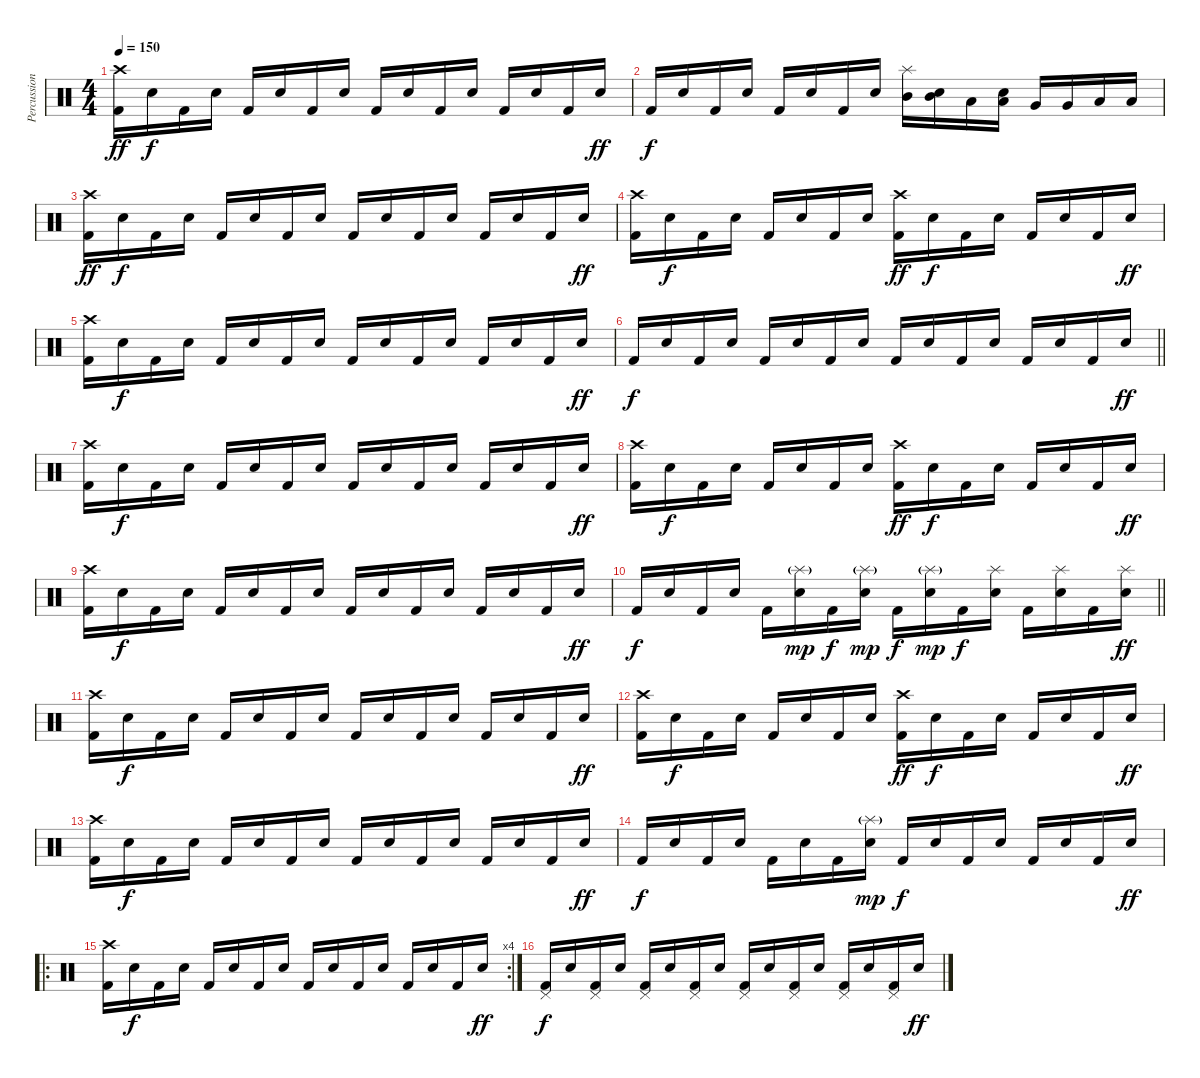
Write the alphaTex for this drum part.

\track ("Percussion" "Percussion") {instrument percussion}
\staff {score}
\articulation defaults
\ts (4 4)
\tempo 150
\clef neutral
\ks c
("Crash high (hit)" "Kick (hit) 2").16{dy ff} "Electric Snare (hit)".16{dy f} "Kick (hit) 2".16 "Electric Snare (hit)".16 "Kick (hit) 2".16 "Electric Snare (hit)".16 "Kick (hit) 2".16 "Electric Snare (hit)".16 "Kick (hit) 2".16 "Electric Snare (hit)".16 "Kick (hit) 2".16 "Electric Snare (hit)".16 "Kick (hit) 2".16 "Electric Snare (hit)".16 "Kick (hit) 2".16 "Electric Snare (hit)".16{dy ff} |
"Kick (hit) 2".16{dy f} "Electric Snare (hit)".16 "Kick (hit) 2".16 "Electric Snare (hit)".16 "Kick (hit) 2".16 "Electric Snare (hit)".16 "Kick (hit) 2".16 "Electric Snare (hit)".16 ("Splash (hit)" "Mid Tom (hit)").16 ("Electric Snare (hit)" "Mid Tom (hit)").16 "Low Tom (hit)".16 ("Electric Snare (hit)" "Low Tom (hit)").16 "Very Low Tom (hit)".16 "Very Low Tom (hit)".16 "Low Floor Tom (hit)".16 "Low Floor Tom (hit)".16 |
("Crash high (hit)" "Kick (hit) 2").16{dy ff} "Electric Snare (hit)".16{dy f} "Kick (hit) 2".16 "Electric Snare (hit)".16 "Kick (hit) 2".16 "Electric Snare (hit)".16 "Kick (hit) 2".16 "Electric Snare (hit)".16 "Kick (hit) 2".16 "Electric Snare (hit)".16 "Kick (hit) 2".16 "Electric Snare (hit)".16 "Kick (hit) 2".16 "Electric Snare (hit)".16 "Kick (hit) 2".16 "Electric Snare (hit)".16{dy ff} |
("Crash high (hit)" "Kick (hit) 2").16 "Electric Snare (hit)".16{dy f} "Kick (hit) 2".16 "Electric Snare (hit)".16 "Kick (hit) 2".16 "Electric Snare (hit)".16 "Kick (hit) 2".16 "Electric Snare (hit)".16 ("Crash high (hit)" "Kick (hit) 2").16{dy ff} "Electric Snare (hit)".16{dy f} "Kick (hit) 2".16 "Electric Snare (hit)".16 "Kick (hit) 2".16 "Electric Snare (hit)".16 "Kick (hit) 2".16 "Electric Snare (hit)".16{dy ff} |
("Crash high (hit)" "Kick (hit) 2").16 "Electric Snare (hit)".16{dy f} "Kick (hit) 2".16 "Electric Snare (hit)".16 "Kick (hit) 2".16 "Electric Snare (hit)".16 "Kick (hit) 2".16 "Electric Snare (hit)".16 "Kick (hit) 2".16 "Electric Snare (hit)".16 "Kick (hit) 2".16 "Electric Snare (hit)".16 "Kick (hit) 2".16 "Electric Snare (hit)".16 "Kick (hit) 2".16 "Electric Snare (hit)".16{dy ff} |
\barLineRight lightlight "Kick (hit) 2".16{dy f} "Electric Snare (hit)".16 "Kick (hit) 2".16 "Electric Snare (hit)".16 "Kick (hit) 2".16 "Electric Snare (hit)".16 "Kick (hit) 2".16 "Electric Snare (hit)".16 "Kick (hit) 2".16 "Electric Snare (hit)".16 "Kick (hit) 2".16 "Electric Snare (hit)".16 "Kick (hit) 2".16 "Electric Snare (hit)".16 "Kick (hit) 2".16 "Electric Snare (hit)".16{dy ff}
|
("Crash high (hit)" "Kick (hit) 2").16 "Electric Snare (hit)".16{dy f} "Kick (hit) 2".16 "Electric Snare (hit)".16 "Kick (hit) 2".16 "Electric Snare (hit)".16 "Kick (hit) 2".16 "Electric Snare (hit)".16 "Kick (hit) 2".16 "Electric Snare (hit)".16 "Kick (hit) 2".16 "Electric Snare (hit)".16 "Kick (hit) 2".16 "Electric Snare (hit)".16 "Kick (hit) 2".16 "Electric Snare (hit)".16{dy ff} |
("Crash high (hit)" "Kick (hit) 2").16 "Electric Snare (hit)".16{dy f} "Kick (hit) 2".16 "Electric Snare (hit)".16 "Kick (hit) 2".16 "Electric Snare (hit)".16 "Kick (hit) 2".16 "Electric Snare (hit)".16 ("Crash high (hit)" "Kick (hit) 2").16{dy ff} "Electric Snare (hit)".16{dy f} "Kick (hit) 2".16 "Electric Snare (hit)".16 "Kick (hit) 2".16 "Electric Snare (hit)".16 "Kick (hit) 2".16 "Electric Snare (hit)".16{dy ff} |
("Crash high (hit)" "Kick (hit) 2").16 "Electric Snare (hit)".16{dy f} "Kick (hit) 2".16 "Electric Snare (hit)".16 "Kick (hit) 2".16 "Electric Snare (hit)".16 "Kick (hit) 2".16 "Electric Snare (hit)".16 "Kick (hit) 2".16 "Electric Snare (hit)".16 "Kick (hit) 2".16 "Electric Snare (hit)".16 "Kick (hit) 2".16 "Electric Snare (hit)".16 "Kick (hit) 2".16 "Electric Snare (hit)".16{dy ff} |
\barLineRight lightlight "Kick (hit) 2".16{dy f} "Electric Snare (hit)".16 "Kick (hit) 2".16 "Electric Snare (hit)".16 "Kick (hit) 2".16
("Splash (hit)"{g} "Electric Snare (hit)").16{dy mp} "Kick (hit) 2".16{dy f} ("Splash (hit)"{g} "Electric Snare (hit)").16{dy mp} "Kick (hit) 2".16{dy f} ("Splash (hit)"{g} "Electric Snare (hit)").16{dy mp} "Kick (hit) 2".16{dy f} ("Splash (hit)" "Electric Snare (hit)").16 "Kick (hit) 2".16 ("Splash (hit)" "Electric Snare (hit)").16 "Kick (hit) 2".16 ("Splash (hit)" "Electric Snare (hit)").16{dy ff} |
("Crash high (hit)" "Kick (hit) 2").16 "Electric Snare (hit)".16{dy f} "Kick (hit) 2".16 "Electric Snare (hit)".16 "Kick (hit) 2".16 "Electric Snare (hit)".16 "Kick (hit) 2".16 "Electric Snare (hit)".16 "Kick (hit) 2".16 "Electric Snare (hit)".16 "Kick (hit) 2".16 "Electric Snare (hit)".16 "Kick (hit) 2".16 "Electric Snare (hit)".16 "Kick (hit) 2".16 "Electric Snare (hit)".16{dy ff} |
("Crash high (hit)" "Kick (hit) 2").16 "Electric Snare (hit)".16{dy f} "Kick (hit) 2".16 "Electric Snare (hit)".16 "Kick (hit) 2".16 "Electric Snare (hit)".16 "Kick (hit) 2".16 "Electric Snare (hit)".16 ("Crash high (hit)" "Kick (hit) 2").16{dy ff} "Electric Snare (hit)".16{dy f} "Kick (hit) 2".16 "Electric Snare (hit)".16 "Kick (hit) 2".16 "Electric Snare (hit)".16 "Kick (hit) 2".16 "Electric Snare (hit)".16{dy ff} |
("Crash high (hit)" "Kick (hit) 2").16 "Electric Snare (hit)".16{dy f} "Kick (hit) 2".16 "Electric Snare (hit)".16 "Kick (hit) 2".16 "Electric Snare (hit)".16 "Kick (hit) 2".16 "Electric Snare (hit)".16 "Kick (hit) 2".16 "Electric Snare (hit)".16 "Kick (hit) 2".16 "Electric Snare (hit)".16 "Kick (hit) 2".16 "Electric Snare (hit)".16 "Kick (hit) 2".16 "Electric Snare (hit)".16{dy ff} |
"Kick (hit) 2".16{dy f} "Electric Snare (hit)".16 "Kick (hit) 2".16 "Electric Snare (hit)".16 "Kick (hit) 2".16 "Electric Snare (hit)".16 "Kick (hit) 2".16 ("Splash (hit)"{g} "Electric Snare (hit)").16{dy mp} "Kick (hit) 2".16{dy f} "Electric Snare (hit)".16 "Kick (hit) 2".16 "Electric Snare (hit)".16 "Kick (hit) 2".16 "Electric Snare (hit)".16 "Kick (hit) 2".16 "Electric Snare (hit)".16{dy ff} |
\ro
\rc 4
("Crash high (hit)" "Kick (hit) 2").16 "Electric Snare (hit)".16{dy f} "Kick (hit) 2".16 "Electric Snare (hit)".16 "Kick (hit) 2".16 "Electric Snare (hit)".16 "Kick (hit) 2".16 "Electric Snare (hit)".16 "Kick (hit) 2".16 "Electric Snare (hit)".16 "Kick (hit) 2".16 "Electric Snare (hit)".16 "Kick (hit) 2".16 "Electric Snare (hit)".16 "Kick (hit) 2".16 "Electric Snare (hit)".16{dy ff} |
("Pedal Hi-Hat (hit)" "Kick (hit) 2").16{dy f} "Electric Snare (hit)".16 ("Pedal Hi-Hat (hit)" "Kick (hit) 2").16 "Electric Snare (hit)".16 ("Pedal Hi-Hat (hit)" "Kick (hit) 2").16 "Electric Snare (hit)".16 ("Pedal Hi-Hat (hit)" "Kick (hit) 2").16 "Electric Snare (hit)".16 ("Pedal Hi-Hat (hit)" "Kick (hit) 2").16 "Electric Snare (hit)".16 ("Pedal Hi-Hat (hit)" "Kick (hit) 2").16 "Electric Snare (hit)".16 ("Pedal Hi-Hat (hit)" "Kick (hit) 2").16 "Electric Snare (hit)".16 ("Pedal Hi-Hat (hit)" "Kick (hit) 2").16 "Electric Snare (hit)".16{dy ff}
